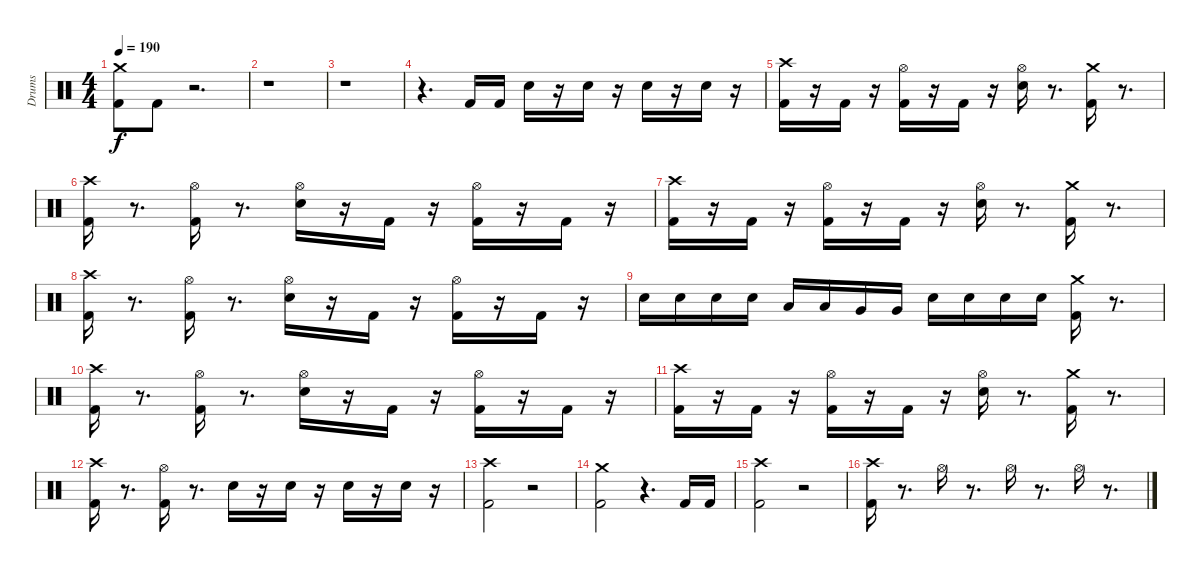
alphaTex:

\track ("Drums" "Drums") {instrument percussion}
\staff {score}
\articulation defaults
\ts (4 4)
\tempo 190
\clef neutral
\ks c
("Crash medium (hit)" "Kick (hit) 2").8{dy f} "Kick (hit) 2".8 r.2{d} |
r.1 |
r.1 |
r.4{d} "Kick (hit) 2".16 "Kick (hit) 2".16 "Electric Snare (hit)".16 r.16 "Electric Snare (hit)".16 r.16 "Electric Snare (hit)".16 r.16 "Electric Snare (hit)".16 r.16 |
("Kick (hit) 2" "Crash high (hit)").16 r.16 "Kick (hit) 2".16 r.16 ("Kick (hit) 2" "Hi-Hat (open)").16 r.16 "Kick (hit) 2".16 r.16 ("Electric Snare (hit)" "Hi-Hat (open)").16 r.8{d} ("Kick (hit) 2" "Crash medium (hit)").16 r.8{d} |
("Kick (hit) 2" "Crash high (hit)").16 r.8{d} ("Kick (hit) 2" "Hi-Hat (open)").16 r.8{d} ("Electric Snare (hit)" "Hi-Hat (open)").16 r.16 "Kick (hit) 2".16 r.16 ("Kick (hit) 2" "Hi-Hat (open)").16 r.16 "Kick (hit) 2".16 r.16 |
("Kick (hit) 2" "Crash high (hit)").16 r.16 "Kick (hit) 2".16 r.16 ("Kick (hit) 2" "Hi-Hat (open)").16 r.16 "Kick (hit) 2".16 r.16 ("Electric Snare (hit)" "Hi-Hat (open)").16 r.8{d} ("Kick (hit) 2" "Crash medium (hit)").16 r.8{d} |
("Kick (hit) 2" "Crash high (hit)").16 r.8{d} ("Kick (hit) 2" "Hi-Hat (open)").16 r.8{d} ("Electric Snare (hit)" "Hi-Hat (open)").16 r.16 "Kick (hit) 2".16 r.16 ("Kick (hit) 2" "Hi-Hat (open)").16 r.16 "Kick (hit) 2".16 r.16 |
"Electric Snare (hit)".16 "Electric Snare (hit)".16 "Electric Snare (hit)".16 "Electric Snare (hit)".16 "Low Tom (hit)".16 "Low Tom (hit)".16 "Very Low Tom (hit)".16 "Very Low Tom (hit)".16 "Electric Snare (hit)".16 "Electric Snare (hit)".16 "Electric Snare (hit)".16 "Electric Snare (hit)".16 ("Kick (hit) 2" "Crash medium (hit)").16 r.8{d} |
("Kick (hit) 2" "Crash high (hit)").16 r.8{d} ("Kick (hit) 2" "Hi-Hat (open)").16 r.8{d} ("Electric Snare (hit)" "Hi-Hat (open)").16 r.16 "Kick (hit) 2".16 r.16 ("Kick (hit) 2" "Hi-Hat (open)").16 r.16 "Kick (hit) 2".16 r.16 |
("Kick (hit) 2" "Crash high (hit)").16 r.16 "Kick (hit) 2".16 r.16 ("Kick (hit) 2" "Hi-Hat (open)").16 r.16 "Kick (hit) 2".16 r.16 ("Electric Snare (hit)" "Hi-Hat (open)").16 r.8{d} ("Kick (hit) 2" "Crash medium (hit)").16 r.8{d} |
("Kick (hit) 2" "Crash high (hit)").16 r.8{d} ("Kick (hit) 2" "Hi-Hat (open)").16 r.8{d} "Electric Snare (hit)".16 r.16 "Electric Snare (hit)".16 r.16 "Electric Snare (hit)".16 r.16 "Electric Snare (hit)".16 r.16 |
("Kick (hit) 2" "Crash high (hit)").2 r.2 |
("Crash medium (hit)" "Kick (hit) 2").2 r.4{d} "Kick (hit) 2".16 "Kick (hit) 2".16 |
("Crash high (hit)" "Kick (hit) 2").2 r.2 |
("Crash high (hit)" "Kick (hit) 2").16 r.8{d} "Hi-Hat (open)".16 r.8{d} "Hi-Hat (open)".16 r.8{d} "Hi-Hat (open)".16 r.8{d}
